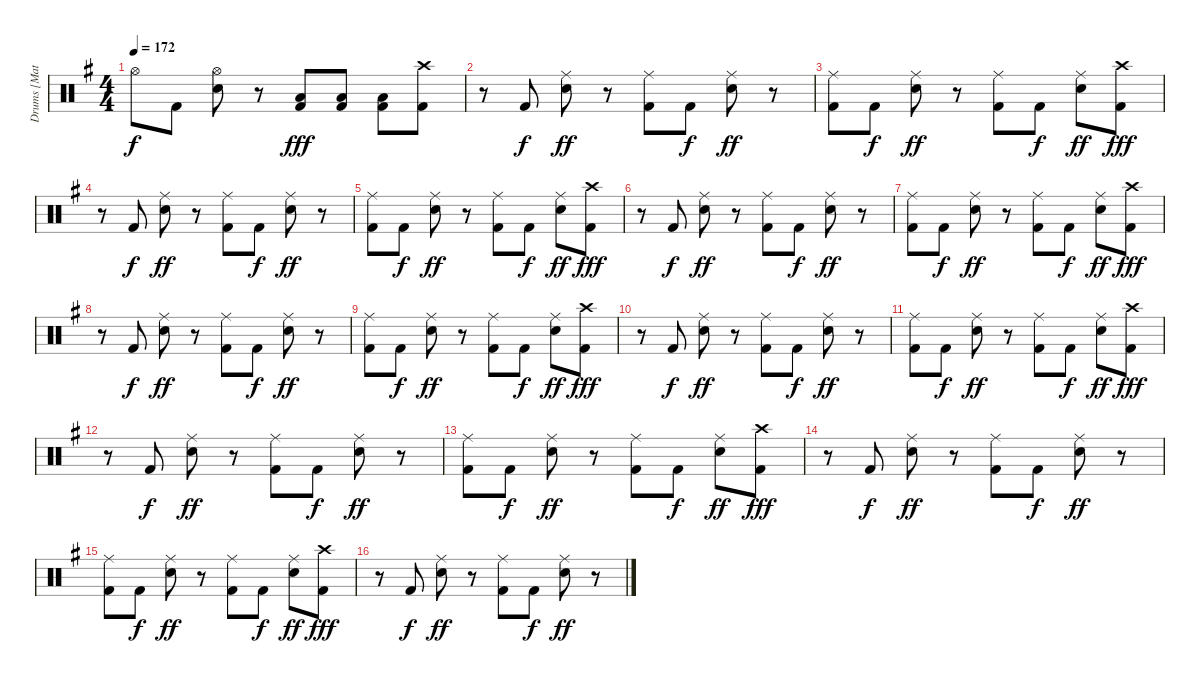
\track ("Drums [Matt]" "Drums [Mat") {instrument percussion}
\staff {score}
\articulation defaults
\ts (4 4)
\tempo 172
\clef neutral
\ks g "Hi-Hat (open)".8{dy f} "Kick (hit) 2".8
("Hi-Hat (open)" "Snare (hit) 2").8 r.8 ("Kick (hit) 2" "Low Tom (hit)").8{dy fff} ("Kick (hit) 2" "Low Tom (hit)").8 ("Kick (hit) 2" "Low Tom (hit)").8 ("Kick (hit) 2" "Crash high (hit)").8 |
r.8 "Kick (hit) 2".8{dy f} ("Ride (middle)" "Snare (hit) 2").8{dy ff} r.8 ("Ride (middle)" "Kick (hit) 2").8 "Kick (hit) 2".8{dy f} ("Ride (middle)" "Snare (hit) 2").8{dy ff} r.8 |
("Ride (middle)" "Kick (hit) 2").8 "Kick (hit) 2".8{dy f} ("Ride (middle)" "Snare (hit) 2").8{dy ff} r.8 ("Ride (middle)" "Kick (hit) 2").8 "Kick (hit) 2".8{dy f} ("Ride (middle)" "Snare (hit) 2").8{dy ff} ("Kick (hit) 2" "Crash high (hit)").8{dy fff} |
r.8 "Kick (hit) 2".8{dy f} ("Ride (middle)" "Snare (hit) 2").8{dy ff} r.8 ("Ride (middle)" "Kick (hit) 2").8 "Kick (hit) 2".8{dy f} ("Ride (middle)" "Snare (hit) 2").8{dy ff} r.8 |
("Ride (middle)" "Kick (hit) 2").8 "Kick (hit) 2".8{dy f} ("Ride (middle)" "Snare (hit) 2").8{dy ff} r.8 ("Ride (middle)" "Kick (hit) 2").8 "Kick (hit) 2".8{dy f} ("Ride (middle)" "Snare (hit) 2").8{dy ff} ("Kick (hit) 2" "Crash high (hit)").8{dy fff} |
r.8 "Kick (hit) 2".8{dy f} ("Ride (middle)" "Snare (hit) 2").8{dy ff} r.8 ("Ride (middle)" "Kick (hit) 2").8 "Kick (hit) 2".8{dy f} ("Ride (middle)" "Snare (hit) 2").8{dy ff} r.8 |
("Ride (middle)" "Kick (hit) 2").8 "Kick (hit) 2".8{dy f} ("Ride (middle)" "Snare (hit) 2").8{dy ff} r.8 ("Ride (middle)" "Kick (hit) 2").8 "Kick (hit) 2".8{dy f} ("Ride (middle)" "Snare (hit) 2").8{dy ff} ("Kick (hit) 2" "Crash high (hit)").8{dy fff} |
r.8 "Kick (hit) 2".8{dy f} ("Ride (middle)" "Snare (hit) 2").8{dy ff} r.8 ("Ride (middle)" "Kick (hit) 2").8 "Kick (hit) 2".8{dy f} ("Ride (middle)" "Snare (hit) 2").8{dy ff} r.8 |
("Ride (middle)" "Kick (hit) 2").8 "Kick (hit) 2".8{dy f} ("Ride (middle)" "Snare (hit) 2").8{dy ff} r.8 ("Ride (middle)" "Kick (hit) 2").8 "Kick (hit) 2".8{dy f} ("Ride (middle)" "Snare (hit) 2").8{dy ff} ("Kick (hit) 2" "Crash high (hit)").8{dy fff} |
r.8 "Kick (hit) 2".8{dy f} ("Ride (middle)" "Snare (hit) 2").8{dy ff} r.8 ("Ride (middle)" "Kick (hit) 2").8 "Kick (hit) 2".8{dy f} ("Ride (middle)" "Snare (hit) 2").8{dy ff} r.8 |
("Ride (middle)" "Kick (hit) 2").8 "Kick (hit) 2".8{dy f} ("Ride (middle)" "Snare (hit) 2").8{dy ff} r.8 ("Ride (middle)" "Kick (hit) 2").8 "Kick (hit) 2".8{dy f} ("Ride (middle)" "Snare (hit) 2").8{dy ff} ("Kick (hit) 2" "Crash high (hit)").8{dy fff} |
r.8 "Kick (hit) 2".8{dy f} ("Ride (middle)" "Snare (hit) 2").8{dy ff} r.8 ("Ride (middle)" "Kick (hit) 2").8 "Kick (hit) 2".8{dy f} ("Ride (middle)" "Snare (hit) 2").8{dy ff} r.8 |
("Ride (middle)" "Kick (hit) 2").8 "Kick (hit) 2".8{dy f} ("Ride (middle)" "Snare (hit) 2").8{dy ff} r.8 ("Ride (middle)" "Kick (hit) 2").8 "Kick (hit) 2".8{dy f} ("Ride (middle)" "Snare (hit) 2").8{dy ff} ("Kick (hit) 2" "Crash high (hit)").8{dy fff} |
r.8 "Kick (hit) 2".8{dy f} ("Ride (middle)" "Snare (hit) 2").8{dy ff} r.8 ("Ride (middle)" "Kick (hit) 2").8 "Kick (hit) 2".8{dy f} ("Ride (middle)" "Snare (hit) 2").8{dy ff} r.8 |
("Ride (middle)" "Kick (hit) 2").8 "Kick (hit) 2".8{dy f} ("Ride (middle)" "Snare (hit) 2").8{dy ff} r.8 ("Ride (middle)" "Kick (hit) 2").8 "Kick (hit) 2".8{dy f} ("Ride (middle)" "Snare (hit) 2").8{dy ff} ("Kick (hit) 2" "Crash high (hit)").8{dy fff} |
r.8 "Kick (hit) 2".8{dy f} ("Ride (middle)" "Snare (hit) 2").8{dy ff} r.8 ("Ride (middle)" "Kick (hit) 2").8 "Kick (hit) 2".8{dy f} ("Ride (middle)" "Snare (hit) 2").8{dy ff} r.8
